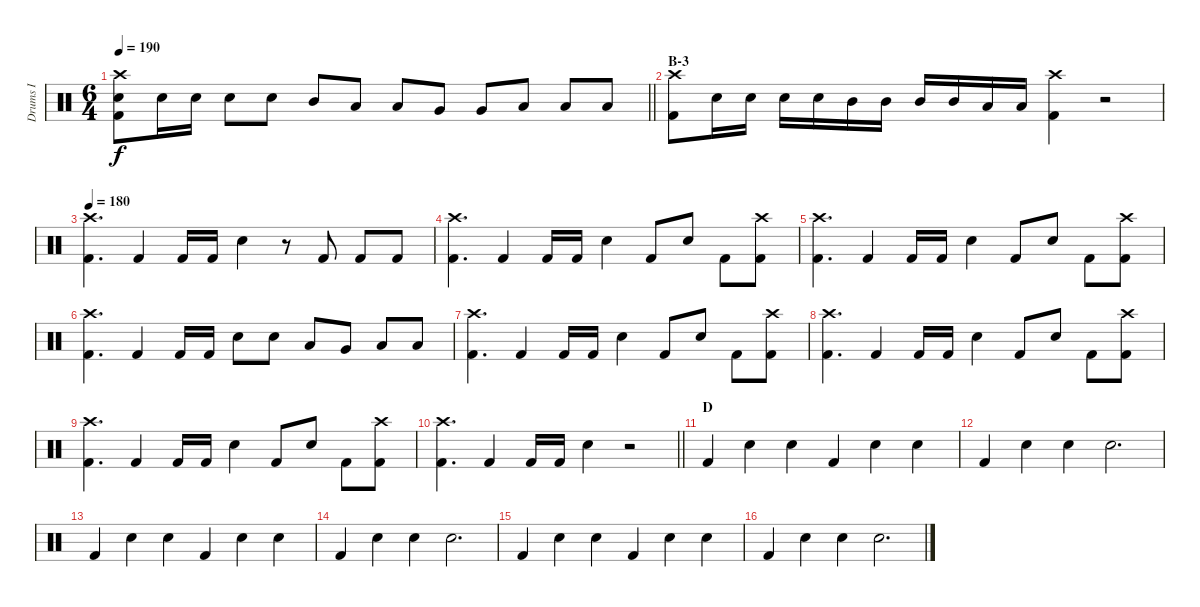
\track ("Drums I" "Drums I") {instrument percussion}
\staff {score}
\articulation defaults
\ts (6 4)
\tempo 190
\clef neutral
\barLineRight lightlight
\ks c
("Crash high (hit)" "Electric Snare (hit)" "Kick (hit) 2").8{dy f} "Electric Snare (hit)".16 "Electric Snare (hit)".16 "Electric Snare (hit)".8 "Electric Snare (hit)".8 "Mid Tom (hit)".8 "Low Tom (hit)".8 "Low Tom (hit)".8 "Very Low Tom (hit)".8 "Very Low Tom (hit)".8 "Low Floor Tom (hit)".8 "Low Floor Tom (hit)".8 "Low Floor Tom (hit)".8 |
\section ("" "B-3")
("Crash high (hit)" "Kick (hit) 2").8 "Electric Snare (hit)".16 "Electric Snare (hit)".16 "Electric Snare (hit)".16 "Electric Snare (hit)".16 "Mid Tom (hit)".16 "Mid Tom (hit)".16 "Mid Tom (hit)".16 "Mid Tom (hit)".16 "Low Tom (hit)".16 "Low Tom (hit)".16 ("Crash high (hit)" "Kick (hit) 2").4 r.2 |
\tempo 180
("Crash high (hit)" "Kick (hit) 2").4{d} "Kick (hit) 2".4 "Kick (hit) 2".16 "Kick (hit) 2".16 "Electric Snare (hit)".4 r.8 "Kick (hit) 2".8 "Kick (hit) 2".8 "Kick (hit) 2".8 |
("Crash high (hit)" "Kick (hit) 2").4{d} "Kick (hit) 2".4 "Kick (hit) 2".16 "Kick (hit) 2".16 "Electric Snare (hit)".4 "Kick (hit) 2".8 "Electric Snare (hit)".8 "Kick (hit) 2".8 ("Crash high (hit)" "Kick (hit) 2").8 |
("Crash high (hit)" "Kick (hit) 2").4{d} "Kick (hit) 2".4 "Kick (hit) 2".16 "Kick (hit) 2".16 "Electric Snare (hit)".4 "Kick (hit) 2".8 "Electric Snare (hit)".8 "Kick (hit) 2".8 ("Crash high (hit)" "Kick (hit) 2").8 |
("Crash high (hit)" "Kick (hit) 2").4{d} "Kick (hit) 2".4 "Kick (hit) 2".16 "Kick (hit) 2".16 "Electric Snare (hit)".8 "Electric Snare (hit)".8 "Low Tom (hit)".8 "Very Low Tom (hit)".8 "Low Floor Tom (hit)".8 "Low Floor Tom (hit)".8 |
("Crash high (hit)" "Kick (hit) 2").4{d} "Kick (hit) 2".4 "Kick (hit) 2".16 "Kick (hit) 2".16 "Electric Snare (hit)".4 "Kick (hit) 2".8 "Electric Snare (hit)".8 "Kick (hit) 2".8 ("Crash high (hit)" "Kick (hit) 2").8 |
("Crash high (hit)" "Kick (hit) 2").4{d} "Kick (hit) 2".4 "Kick (hit) 2".16 "Kick (hit) 2".16 "Electric Snare (hit)".4 "Kick (hit) 2".8 "Electric Snare (hit)".8 "Kick (hit) 2".8 ("Crash high (hit)" "Kick (hit) 2").8 |
("Crash high (hit)" "Kick (hit) 2").4{d} "Kick (hit) 2".4 "Kick (hit) 2".16 "Kick (hit) 2".16 "Electric Snare (hit)".4 "Kick (hit) 2".8 "Electric Snare (hit)".8 "Kick (hit) 2".8 ("Crash high (hit)" "Kick (hit) 2").8 |
\barLineRight lightlight
("Crash high (hit)" "Kick (hit) 2").4{d} "Kick (hit) 2".4 "Kick (hit) 2".16 "Kick (hit) 2".16 "Electric Snare (hit)".4 r.2 |
\section ("" "D")
"Kick (hit) 2".4 "Electric Snare (hit)".4 "Electric Snare (hit)".4 "Kick (hit) 2".4 "Electric Snare (hit)".4 "Electric Snare (hit)".4 |
"Kick (hit) 2".4 "Electric Snare (hit)".4 "Electric Snare (hit)".4 "Electric Snare (hit)".2{d} |
"Kick (hit) 2".4 "Electric Snare (hit)".4 "Electric Snare (hit)".4 "Kick (hit) 2".4 "Electric Snare (hit)".4 "Electric Snare (hit)".4 |
"Kick (hit) 2".4 "Electric Snare (hit)".4 "Electric Snare (hit)".4 "Electric Snare (hit)".2{d} |
"Kick (hit) 2".4 "Electric Snare (hit)".4 "Electric Snare (hit)".4 "Kick (hit) 2".4 "Electric Snare (hit)".4 "Electric Snare (hit)".4 |
"Kick (hit) 2".4 "Electric Snare (hit)".4 "Electric Snare (hit)".4 "Electric Snare (hit)".2{d}
